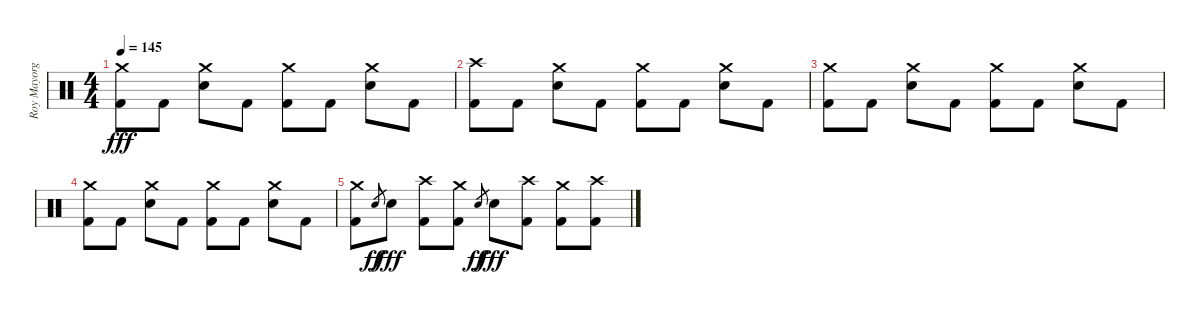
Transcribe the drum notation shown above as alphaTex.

\track ("Roy Mayorga" "Roy Mayorg") {instrument percussion}
\staff {score}
\articulation defaults
\ts (4 4)
\tempo 145
\clef neutral
\ks c
("Crash medium (hit)" "Kick (hit) 2").8{dy fff} "Kick (hit) 2".8 ("Crash medium (hit)" "Electric Snare (hit)").8 "Kick (hit) 2".8 ("Crash medium (hit)" "Kick (hit) 2").8 "Kick (hit) 2".8 ("Crash medium (hit)" "Electric Snare (hit)").8 "Kick (hit) 2".8 |
("Crash high (hit)" "Kick (hit) 2").8 "Kick (hit) 2".8 ("Crash medium (hit)" "Electric Snare (hit)").8 "Kick (hit) 2".8 ("Crash medium (hit)" "Kick (hit) 2").8 "Kick (hit) 2".8 ("Crash medium (hit)" "Electric Snare (hit)").8 "Kick (hit) 2".8 |
("Crash medium (hit)" "Kick (hit) 2").8 "Kick (hit) 2".8 ("Crash medium (hit)" "Electric Snare (hit)").8 "Kick (hit) 2".8 ("Crash medium (hit)" "Kick (hit) 2").8 "Kick (hit) 2".8 ("Crash medium (hit)" "Electric Snare (hit)").8 "Kick (hit) 2".8 |
("Crash medium (hit)" "Kick (hit) 2").8 "Kick (hit) 2".8 ("Crash medium (hit)" "Electric Snare (hit)").8 "Kick (hit) 2".8 ("Crash medium (hit)" "Kick (hit) 2").8 "Kick (hit) 2".8 ("Crash medium (hit)" "Electric Snare (hit)").8 "Kick (hit) 2".8 |
("Crash medium (hit)" "Kick (hit) 2").8 "Electric Snare (hit)".8{gr dy ff} "Electric Snare (hit)".8{dy fff} ("Crash high (hit)" "Kick (hit) 2").8 ("Crash medium (hit)" "Kick (hit) 2").8 "Electric Snare (hit)".8{gr dy ff} "Electric Snare (hit)".8{dy fff} ("Crash high (hit)" "Kick (hit) 2").8 ("Crash medium (hit)" "Kick (hit) 2").8 ("Crash high (hit)" "Kick (hit) 2").8
